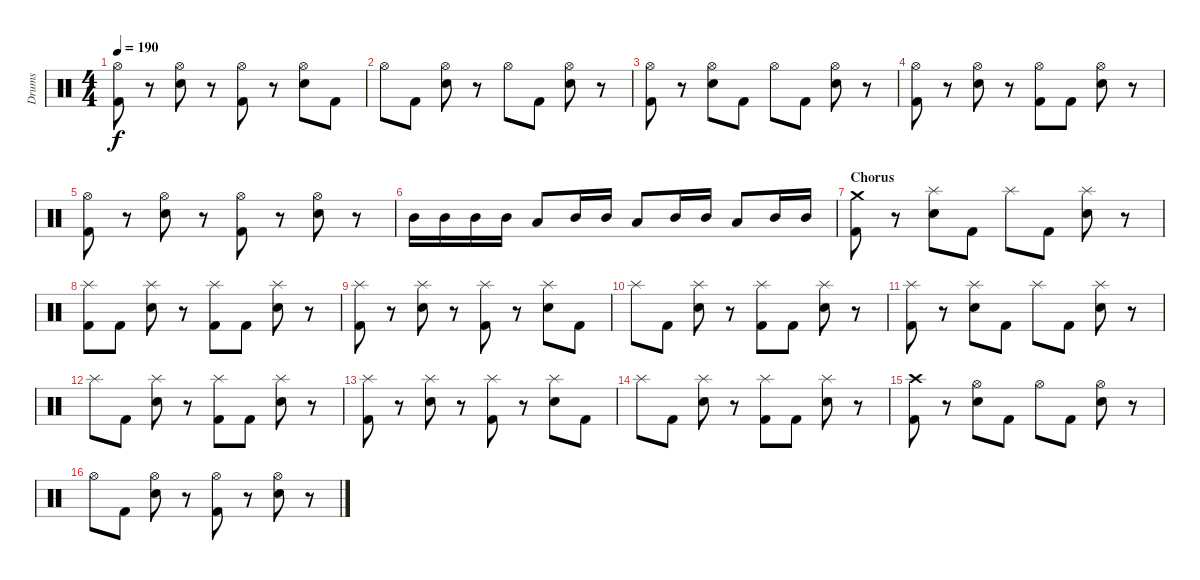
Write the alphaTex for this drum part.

\track ("Drums" "Drums") {instrument percussion}
\staff {score}
\articulation defaults
\ts (4 4)
\tempo 190
\clef neutral
\ks c
("Hi-Hat (open)" "Kick (hit) 2").8{dy f} r.8 ("Hi-Hat (open)" "Snare (hit) 2").8 r.8 ("Hi-Hat (open)" "Kick (hit) 2").8 r.8 ("Hi-Hat (open)" "Snare (hit) 2").8 "Kick (hit) 2".8 |
"Hi-Hat (open)".8 "Kick (hit) 2".8 ("Hi-Hat (open)" "Snare (hit) 2").8 r.8 "Hi-Hat (open)".8 "Kick (hit) 2".8 ("Hi-Hat (open)" "Snare (hit) 2").8 r.8 |
("Hi-Hat (open)" "Kick (hit) 2").8 r.8 ("Hi-Hat (open)" "Snare (hit) 2").8 "Kick (hit) 2".8 "Hi-Hat (open)".8 "Kick (hit) 2".8 ("Hi-Hat (open)" "Snare (hit) 2").8 r.8 |
("Hi-Hat (open)" "Kick (hit) 2").8 r.8 ("Hi-Hat (open)" "Snare (hit) 2").8 r.8 ("Hi-Hat (open)" "Kick (hit) 2").8 "Kick (hit) 2".8 ("Hi-Hat (open)" "Snare (hit) 2").8 r.8 |
("Hi-Hat (open)" "Kick (hit) 2").8 r.8 ("Hi-Hat (open)" "Snare (hit) 2").8 r.8 ("Hi-Hat (open)" "Kick (hit) 2").8 r.8 ("Hi-Hat (open)" "Snare (hit) 2").8 r.8 |
"Mid Tom (hit)".16 "Mid Tom (hit)".16 "Mid Tom (hit)".16 "Mid Tom (hit)".16 "Low Tom (hit)".8 "Mid Tom (hit)".16 "Mid Tom (hit)".16 "Low Tom (hit)".8 "Mid Tom (hit)".16 "Mid Tom (hit)".16 "Low Tom (hit)".8 "Mid Tom (hit)".16 "Mid Tom (hit)".16 |
\section ("" "Chorus")
("Crash medium (hit)" "Kick (hit) 2").8 r.8 ("Splash (hit)" "Snare (hit) 2").8 "Kick (hit) 2".8 "Splash (hit)".8 "Kick (hit) 2".8 ("Splash (hit)" "Snare (hit) 2").8 r.8 |
("Splash (hit)" "Kick (hit) 2").8 "Kick (hit) 2".8 ("Splash (hit)" "Snare (hit) 2").8 r.8 ("Splash (hit)" "Kick (hit) 2").8 "Kick (hit) 2".8 ("Splash (hit)" "Snare (hit) 2").8 r.8 |
("Splash (hit)" "Kick (hit) 2").8 r.8 ("Splash (hit)" "Snare (hit) 2").8 r.8 ("Splash (hit)" "Kick (hit) 2").8 r.8 ("Splash (hit)" "Snare (hit) 2").8 "Kick (hit) 2".8 |
"Splash (hit)".8 "Kick (hit) 2".8 ("Splash (hit)" "Snare (hit) 2").8 r.8 ("Splash (hit)" "Kick (hit) 2").8 "Kick (hit) 2".8 ("Splash (hit)" "Snare (hit) 2").8 r.8 |
("Splash (hit)" "Kick (hit) 2").8 r.8 ("Splash (hit)" "Snare (hit) 2").8 "Kick (hit) 2".8 "Splash (hit)".8 "Kick (hit) 2".8 ("Splash (hit)" "Snare (hit) 2").8 r.8 |
"Splash (hit)".8 "Kick (hit) 2".8 ("Splash (hit)" "Snare (hit) 2").8 r.8 ("Splash (hit)" "Kick (hit) 2").8 "Kick (hit) 2".8 ("Splash (hit)" "Snare (hit) 2").8 r.8 |
("Splash (hit)" "Kick (hit) 2").8 r.8 ("Splash (hit)" "Snare (hit) 2").8 r.8 ("Splash (hit)" "Kick (hit) 2").8 r.8 ("Splash (hit)" "Snare (hit) 2").8 "Kick (hit) 2".8 |
"Splash (hit)".8 "Kick (hit) 2".8 ("Splash (hit)" "Snare (hit) 2").8 r.8 ("Splash (hit)" "Kick (hit) 2").8 "Kick (hit) 2".8 ("Splash (hit)" "Snare (hit) 2").8 r.8 |
("Crash high (hit)" "Kick (hit) 2").8 r.8 ("Hi-Hat (open)" "Snare (hit) 2").8 "Kick (hit) 2".8 "Hi-Hat (open)".8 "Kick (hit) 2".8 ("Hi-Hat (open)" "Snare (hit) 2").8 r.8 |
"Hi-Hat (open)".8 "Kick (hit) 2".8 ("Hi-Hat (open)" "Snare (hit) 2").8 r.8 ("Hi-Hat (open)" "Kick (hit) 2").8 r.8 ("Hi-Hat (open)" "Snare (hit) 2").8 r.8
